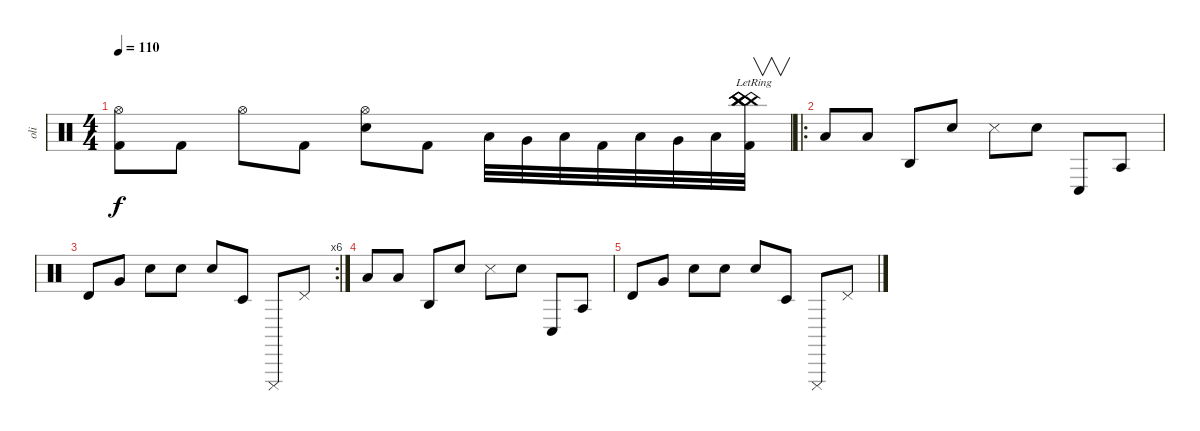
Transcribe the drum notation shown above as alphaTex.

\track ("oli" "oli") {instrument percussion}
\staff {score}
\articulation defaults
\ts (4 4)
\tempo 110
\clef neutral
\ks c
("Hi-Hat (open)" "Kick (hit) 2").8{dy f} "Kick (hit) 2".8 "Hi-Hat (open)".8 "Kick (hit) 2".8 ("Hi-Hat (open)" "Electric Snare (hit)").8 "Kick (hit) 2".8 "Low Floor Tom (hit)".32 "Very Low Tom (hit)".32 "Low Tom (hit)".32 "Kick (hit) 2".32 "Low Floor Tom (hit)".32 "Very Low Tom (hit)".32 "Low Tom (hit)".32 ("China (hit)"{lr} "China (hit)"{lr} "China (hit)"{lr} "China (hit)"{lr} "Kick (hit) 2"{lr}).32{v} |
\ro "Low Tom (hit)".8 "Low Tom (hit)".8 "Agogo high (hit)".8 "Snare (hit)".8 "Metronome (hit)".8 "Metronome (bell)".8 "Conga low (hit)".8 "Agogo tow (hit)".8
|
\rc 6 "Timbale high (hit)".8 "Very Low Tom (hit)".8 "Electric Snare (hit)".8 "Snare (hit)".8 "Metronome (bell)".8 "Timbale low (hit)".8 "Cuica (mute)".8 "Pedal Hi-Hat (hit)".8
|
"Low Tom (hit)".8 "Low Tom (hit)".8{volume 15} "Agogo high (hit)".8{volume 14} "Snare (hit)".8{volume 13} "Metronome (hit)".8{volume 12} "Metronome (bell)".8{volume 11} "Conga low (hit)".8{volume 10} "Agogo tow (hit)".8{volume 9} |
"Timbale high (hit)".8{volume 8} "Very Low Tom (hit)".8{volume 7} "Electric Snare (hit)".8{volume 6} "Snare (hit)".8{volume 5} "Metronome (bell)".8{volume 4} "Timbale low (hit)".8{volume 3} "Cuica (mute)".8{volume 2} "Pedal Hi-Hat (hit)".8{volume 0}
